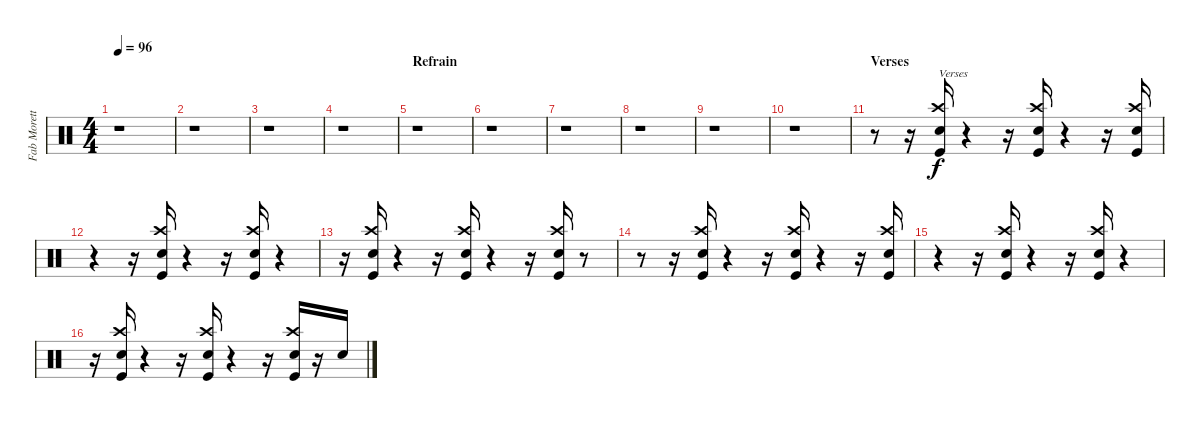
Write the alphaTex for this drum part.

\track ("Fab Moretti" "Fab Morett") {instrument percussion}
\staff {score}
\articulation defaults
\ts (4 4)
\tempo 96
\clef neutral
\ks c
r.1{dy f} |
r.1 |
r.1 |
r.1 |
\section ("" "Refrain")
r.1 |
r.1 |
r.1 |
r.1 |
r.1 |
r.1 |
\section ("" "Verses")
r.8 r.16 ("Kick (hit)" "Crash high (hit)" "Electric Snare (hit)").16{txt "Verses"} r.4 r.16 ("Kick (hit)" "Crash high (hit)" "Electric Snare (hit)").16 r.4 r.16 ("Kick (hit)" "Crash high (hit)" "Electric Snare (hit)").16 |
r.4 r.16 ("Kick (hit)" "Crash high (hit)" "Electric Snare (hit)").16 r.4 r.16 ("Kick (hit)" "Crash high (hit)" "Electric Snare (hit)").16 r.4 |
r.16 ("Kick (hit)" "Crash high (hit)" "Electric Snare (hit)").16 r.4 r.16 ("Kick (hit)" "Crash high (hit)" "Electric Snare (hit)").16 r.4 r.16 ("Kick (hit)" "Crash high (hit)" "Electric Snare (hit)").16 r.8 |
r.8 r.16 ("Kick (hit)" "Crash high (hit)" "Electric Snare (hit)").16 r.4 r.16 ("Kick (hit)" "Crash high (hit)" "Electric Snare (hit)").16 r.4 r.16 ("Kick (hit)" "Crash high (hit)" "Electric Snare (hit)").16 |
r.4 r.16 ("Kick (hit)" "Crash high (hit)" "Electric Snare (hit)").16 r.4 r.16 ("Kick (hit)" "Crash high (hit)" "Electric Snare (hit)").16 r.4 |
r.16 ("Kick (hit)" "Crash high (hit)" "Electric Snare (hit)").16 r.4 r.16 ("Kick (hit)" "Crash high (hit)" "Electric Snare (hit)").16 r.4 r.16 ("Kick (hit)" "Crash high (hit)" "Electric Snare (hit)").16 r.16 "Electric Snare (hit)".16
